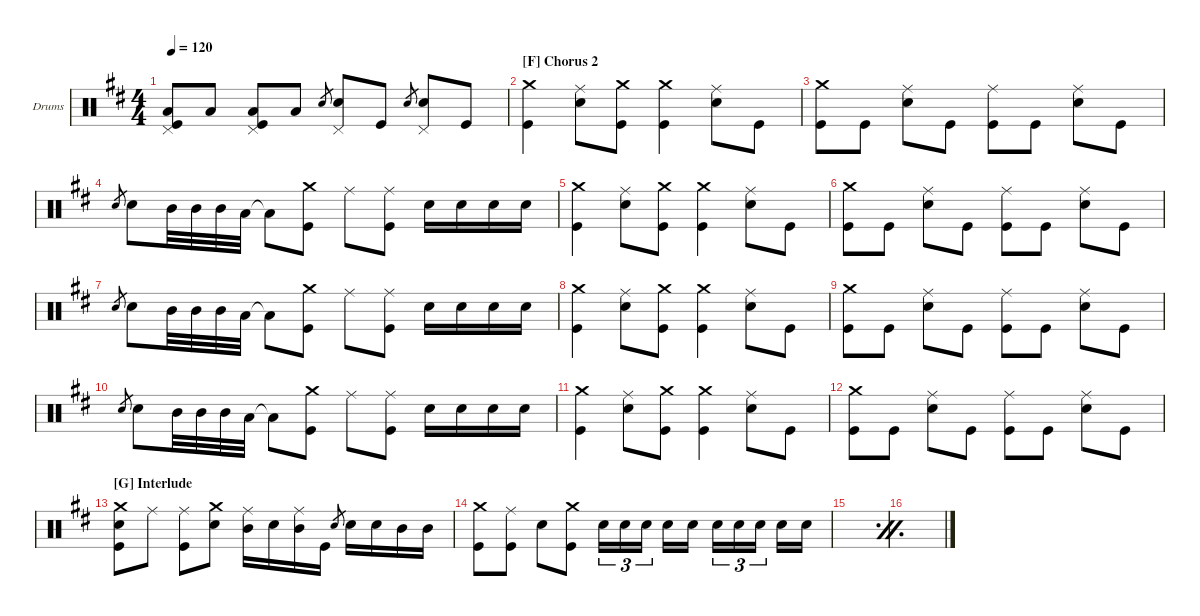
\hideDynamics
\bracketExtendMode nobrackets
\firstSystemTrackNameOrientation horizontal
\otherSystemsTrackNameOrientation horizontal
\track ("Drums" "Drums") {instrument percussion}
\staff {score}
\articulation defaults
\ts (4 4)
\tempo 120
\clef neutral
\ks bminor
("Low Tom (hit)" "Kick (hit)" "Pedal Hi-Hat (hit)").8{dy mf} "Low Tom (hit)".8 ("Low Tom (hit)" "Kick (hit)" "Pedal Hi-Hat (hit)").8 "Low Tom (hit)".8 "Snare (hit) 2".8{gr dy f} ("Snare (hit) 2" "Pedal Hi-Hat (hit)").8 "Kick (hit)".8 "Snare (hit) 2".8{gr} ("Snare (hit) 2" "Pedal Hi-Hat (hit)").8 "Kick (hit)".8 |
\section ("F" "Chorus 2")
("Crash medium (hit)" "Kick (hit)").4 ("Ride (middle)" "Snare (hit) 2").8 ("Crash medium (hit)" "Kick (hit)").8 ("Crash medium (hit)" "Kick (hit)").4 ("Ride (middle)" "Snare (hit) 2").8 "Kick (hit)".8 |
("Crash medium (hit)" "Kick (hit)").8 "Kick (hit)".8 ("Ride (middle)" "Snare (hit) 2").8 "Kick (hit)".8 ("Ride (middle)" "Kick (hit)").8 "Kick (hit)".8 ("Ride (middle)" "Snare (hit) 2").8 "Kick (hit)".8 |
"Snare (hit) 2".8{gr} "Snare (hit) 2".8 "Mid Tom (hit)".32 "Mid Tom (hit)".32 "Mid Tom (hit)".32 "Low Tom (hit)".32 "Low Tom (hit)"{t}.8 ("Kick (hit)" "Crash medium (hit)").8 "Ride (middle)".8 ("Ride (middle)" "Kick (hit)").8 "Snare (hit) 2".16 "Snare (hit) 2".16 "Snare (hit) 2".16 "Snare (hit) 2".16 |
("Crash medium (hit)" "Kick (hit)").4 ("Ride (middle)" "Snare (hit) 2").8 ("Crash medium (hit)" "Kick (hit)").8 ("Crash medium (hit)" "Kick (hit)").4 ("Ride (middle)" "Snare (hit) 2").8 "Kick (hit)".8 |
("Crash medium (hit)" "Kick (hit)").8 "Kick (hit)".8 ("Ride (middle)" "Snare (hit) 2").8 "Kick (hit)".8 ("Ride (middle)" "Kick (hit)").8 "Kick (hit)".8 ("Ride (middle)" "Snare (hit) 2").8 "Kick (hit)".8 |
"Snare (hit) 2".8{gr} "Snare (hit) 2".8 "Mid Tom (hit)".32 "Mid Tom (hit)".32 "Mid Tom (hit)".32 "Low Tom (hit)".32 "Low Tom (hit)"{t}.8 ("Kick (hit)" "Crash medium (hit)").8 "Ride (middle)".8 ("Ride (middle)" "Kick (hit)").8 "Snare (hit) 2".16 "Snare (hit) 2".16 "Snare (hit) 2".16 "Snare (hit) 2".16 |
("Crash medium (hit)" "Kick (hit)").4 ("Ride (middle)" "Snare (hit) 2").8 ("Crash medium (hit)" "Kick (hit)").8 ("Crash medium (hit)" "Kick (hit)").4 ("Ride (middle)" "Snare (hit) 2").8 "Kick (hit)".8 |
("Crash medium (hit)" "Kick (hit)").8 "Kick (hit)".8 ("Ride (middle)" "Snare (hit) 2").8 "Kick (hit)".8 ("Ride (middle)" "Kick (hit)").8 "Kick (hit)".8 ("Ride (middle)" "Snare (hit) 2").8 "Kick (hit)".8 |
"Snare (hit) 2".8{gr} "Snare (hit) 2".8 "Mid Tom (hit)".32 "Mid Tom (hit)".32 "Mid Tom (hit)".32 "Low Tom (hit)".32 "Low Tom (hit)"{t}.8 ("Kick (hit)" "Crash medium (hit)").8 "Ride (middle)".8 ("Ride (middle)" "Kick (hit)").8 "Snare (hit) 2".16 "Snare (hit) 2".16 "Snare (hit) 2".16 "Snare (hit) 2".16 |
("Crash medium (hit)" "Kick (hit)").4 ("Ride (middle)" "Snare (hit) 2").8 ("Crash medium (hit)" "Kick (hit)").8 ("Crash medium (hit)" "Kick (hit)").4 ("Ride (middle)" "Snare (hit) 2").8 "Kick (hit)".8 |
("Crash medium (hit)" "Kick (hit)").8 "Kick (hit)".8 ("Ride (middle)" "Snare (hit) 2").8 "Kick (hit)".8 ("Ride (middle)" "Kick (hit)").8 "Kick (hit)".8 ("Ride (middle)" "Snare (hit) 2").8 "Kick (hit)".8 |
\section ("G" "Interlude")
("Kick (hit)" "Snare (hit) 2" "Crash medium (hit)").8 "Ride (middle)".8 ("Kick (hit)" "Ride (middle)").8 ("Snare (hit) 2" "Crash medium (hit)").8 ("Ride (middle)" "Mid Tom (hit)").16 "Snare (hit) 2".16 ("Mid Tom (hit)" "Ride (middle)").16 "Kick (hit)".16 "Snare (hit) 2".8{gr} "Snare (hit) 2".16 "Snare (hit) 2".16 "Mid Tom (hit)".16 "Mid Tom (hit)".16 |
("Kick (hit)" "Crash medium (hit)").8 ("Kick (hit)" "Ride (middle)").8 "Snare (hit) 2".8 ("Kick (hit)" "Crash medium (hit)").8 "Snare (hit) 2".16{tu (3 2)} "Snare (hit) 2".16{tu (3 2)} "Snare (hit) 2".16{tu (3 2)} "Snare (hit) 2".16 "Snare (hit) 2".16 "Snare (hit) 2".16{tu (3 2)} "Snare (hit) 2".16{tu (3 2)} "Snare (hit) 2".16{tu (3 2)} "Snare (hit) 2".16 "Snare (hit) 2".16 |
\simile firstofdouble
|
\simile secondofdouble
